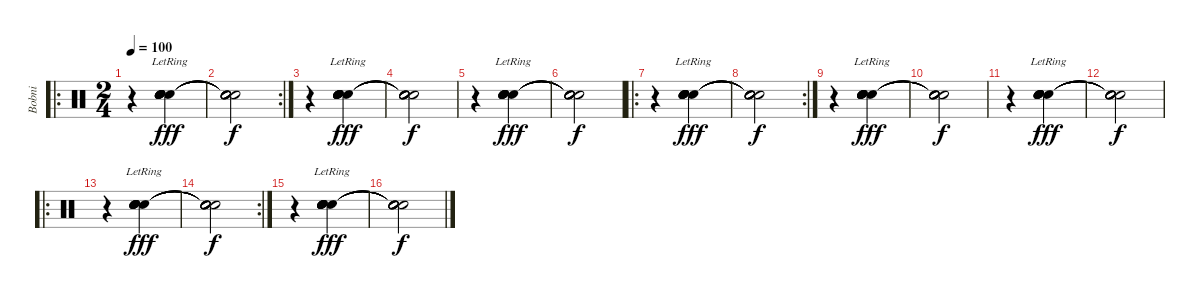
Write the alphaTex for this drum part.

\track ("Bobni" "Bobni") {instrument percussion}
\staff {score}
\articulation defaults
\ro
\ts (2 4)
\tempo 100
\clef neutral
\ks c
r.4{dy f} ("Snare (hit) 2"{lr} "Snare (hit) 2"{lr} "Snare (hit) 2"{lr} "Snare (hit) 2"{lr} "Snare (hit) 2"{lr} "Snare (hit) 2"{lr}).4{dy fff} |
\rc 2
("Snare (hit)"{t} "Snare (hit)"{t} "Snare (hit)"{t} "Snare (hit)"{t} "Snare (hit)"{t} "Snare (hit)"{t}).2{dy f} |
r.4 ("Snare (hit) 2"{lr} "Snare (hit) 2"{lr} "Snare (hit) 2"{lr} "Snare (hit) 2"{lr} "Snare (hit) 2"{lr} "Snare (hit) 2"{lr}).4{dy fff} |
("Snare (hit)"{t} "Snare (hit)"{t} "Snare (hit)"{t} "Snare (hit)"{t} "Snare (hit)"{t} "Snare (hit)"{t}).2{dy f} |
r.4 ("Snare (hit) 2"{lr} "Snare (hit) 2"{lr} "Snare (hit) 2"{lr} "Snare (hit) 2"{lr} "Snare (hit) 2"{lr} "Snare (hit) 2"{lr}).4{dy fff} |
("Snare (hit)"{t} "Snare (hit)"{t} "Snare (hit)"{t} "Snare (hit)"{t} "Snare (hit)"{t} "Snare (hit)"{t}).2{dy f} |
\ro
r.4 ("Snare (hit) 2"{lr} "Snare (hit) 2"{lr} "Snare (hit) 2"{lr} "Snare (hit) 2"{lr} "Snare (hit) 2"{lr} "Snare (hit) 2"{lr}).4{dy fff} |
\rc 2
("Snare (hit)"{t} "Snare (hit)"{t} "Snare (hit)"{t} "Snare (hit)"{t} "Snare (hit)"{t} "Snare (hit)"{t}).2{dy f} |
r.4 ("Snare (hit) 2"{lr} "Snare (hit) 2"{lr} "Snare (hit) 2"{lr} "Snare (hit) 2"{lr} "Snare (hit) 2"{lr} "Snare (hit) 2"{lr}).4{dy fff} |
("Snare (hit)"{t} "Snare (hit)"{t} "Snare (hit)"{t} "Snare (hit)"{t} "Snare (hit)"{t} "Snare (hit)"{t}).2{dy f} |
r.4 ("Snare (hit) 2"{lr} "Snare (hit) 2"{lr} "Snare (hit) 2"{lr} "Snare (hit) 2"{lr} "Snare (hit) 2"{lr} "Snare (hit) 2"{lr}).4{dy fff} |
("Snare (hit)"{t} "Snare (hit)"{t} "Snare (hit)"{t} "Snare (hit)"{t} "Snare (hit)"{t} "Snare (hit)"{t}).2{dy f} |
\ro
r.4 ("Snare (hit) 2"{lr} "Snare (hit) 2"{lr} "Snare (hit) 2"{lr} "Snare (hit) 2"{lr} "Snare (hit) 2"{lr} "Snare (hit) 2"{lr}).4{dy fff} |
\rc 2
("Snare (hit)"{t} "Snare (hit)"{t} "Snare (hit)"{t} "Snare (hit)"{t} "Snare (hit)"{t} "Snare (hit)"{t}).2{dy f} |
r.4 ("Snare (hit) 2"{lr} "Snare (hit) 2"{lr} "Snare (hit) 2"{lr} "Snare (hit) 2"{lr} "Snare (hit) 2"{lr} "Snare (hit) 2"{lr}).4{dy fff} |
("Snare (hit)"{t} "Snare (hit)"{t} "Snare (hit)"{t} "Snare (hit)"{t} "Snare (hit)"{t} "Snare (hit)"{t}).2{dy f}
